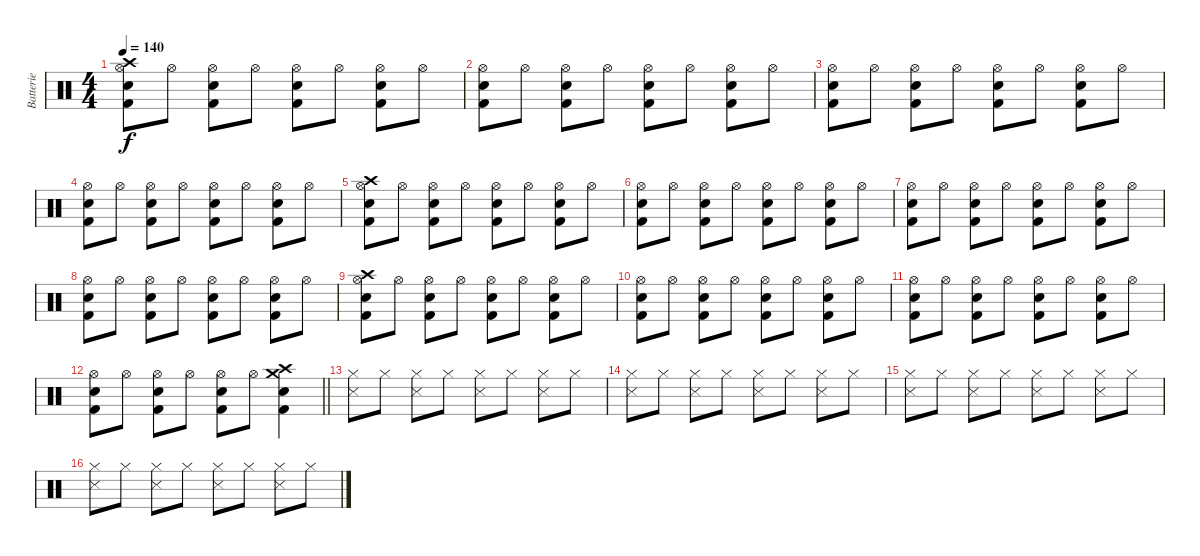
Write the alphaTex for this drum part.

\track ("Batterie" "Batterie") {instrument percussion}
\staff {score}
\articulation defaults
\ts (4 4)
\tempo 140
\clef neutral
\ks c
("Crash high (hit)" "Hi-Hat (open)" "Electric Snare (hit)" "Kick (hit) 2").8{dy f} "Hi-Hat (open)".8 ("Hi-Hat (open)" "Electric Snare (hit)" "Kick (hit) 2").8 "Hi-Hat (open)".8 ("Hi-Hat (open)" "Electric Snare (hit)" "Kick (hit) 2").8 "Hi-Hat (open)".8 ("Hi-Hat (open)" "Electric Snare (hit)" "Kick (hit) 2").8 "Hi-Hat (open)".8 |
("Hi-Hat (open)" "Electric Snare (hit)" "Kick (hit) 2").8 "Hi-Hat (open)".8 ("Hi-Hat (open)" "Electric Snare (hit)" "Kick (hit) 2").8 "Hi-Hat (open)".8 ("Hi-Hat (open)" "Electric Snare (hit)" "Kick (hit) 2").8 "Hi-Hat (open)".8 ("Hi-Hat (open)" "Electric Snare (hit)" "Kick (hit) 2").8 "Hi-Hat (open)".8 |
("Hi-Hat (open)" "Electric Snare (hit)" "Kick (hit) 2").8 "Hi-Hat (open)".8 ("Hi-Hat (open)" "Electric Snare (hit)" "Kick (hit) 2").8 "Hi-Hat (open)".8 ("Hi-Hat (open)" "Electric Snare (hit)" "Kick (hit) 2").8 "Hi-Hat (open)".8 ("Hi-Hat (open)" "Electric Snare (hit)" "Kick (hit) 2").8 "Hi-Hat (open)".8 |
("Hi-Hat (open)" "Electric Snare (hit)" "Kick (hit) 2").8 "Hi-Hat (open)".8 ("Hi-Hat (open)" "Electric Snare (hit)" "Kick (hit) 2").8 "Hi-Hat (open)".8 ("Hi-Hat (open)" "Electric Snare (hit)" "Kick (hit) 2").8 "Hi-Hat (open)".8 ("Hi-Hat (open)" "Electric Snare (hit)" "Kick (hit) 2").8 "Hi-Hat (open)".8 |
("Crash high (hit)" "Hi-Hat (open)" "Electric Snare (hit)" "Kick (hit) 2").8 "Hi-Hat (open)".8 ("Hi-Hat (open)" "Electric Snare (hit)" "Kick (hit) 2").8 "Hi-Hat (open)".8 ("Hi-Hat (open)" "Electric Snare (hit)" "Kick (hit) 2").8 "Hi-Hat (open)".8 ("Hi-Hat (open)" "Electric Snare (hit)" "Kick (hit) 2").8 "Hi-Hat (open)".8 |
("Hi-Hat (open)" "Electric Snare (hit)" "Kick (hit) 2").8 "Hi-Hat (open)".8 ("Hi-Hat (open)" "Electric Snare (hit)" "Kick (hit) 2").8 "Hi-Hat (open)".8 ("Hi-Hat (open)" "Electric Snare (hit)" "Kick (hit) 2").8 "Hi-Hat (open)".8 ("Hi-Hat (open)" "Electric Snare (hit)" "Kick (hit) 2").8 "Hi-Hat (open)".8 |
("Hi-Hat (open)" "Electric Snare (hit)" "Kick (hit) 2").8 "Hi-Hat (open)".8 ("Hi-Hat (open)" "Electric Snare (hit)" "Kick (hit) 2").8 "Hi-Hat (open)".8 ("Hi-Hat (open)" "Electric Snare (hit)" "Kick (hit) 2").8 "Hi-Hat (open)".8 ("Hi-Hat (open)" "Electric Snare (hit)" "Kick (hit) 2").8 "Hi-Hat (open)".8 |
("Hi-Hat (open)" "Electric Snare (hit)" "Kick (hit) 2").8 "Hi-Hat (open)".8 ("Hi-Hat (open)" "Electric Snare (hit)" "Kick (hit) 2").8 "Hi-Hat (open)".8 ("Hi-Hat (open)" "Electric Snare (hit)" "Kick (hit) 2").8 "Hi-Hat (open)".8 ("Hi-Hat (open)" "Electric Snare (hit)" "Kick (hit) 2").8 "Hi-Hat (open)".8 |
("Crash high (hit)" "Hi-Hat (open)" "Electric Snare (hit)" "Kick (hit) 2").8 "Hi-Hat (open)".8 ("Hi-Hat (open)" "Electric Snare (hit)" "Kick (hit) 2").8 "Hi-Hat (open)".8 ("Hi-Hat (open)" "Electric Snare (hit)" "Kick (hit) 2").8 "Hi-Hat (open)".8 ("Hi-Hat (open)" "Electric Snare (hit)" "Kick (hit) 2").8 "Hi-Hat (open)".8 |
("Hi-Hat (open)" "Electric Snare (hit)" "Kick (hit) 2").8 "Hi-Hat (open)".8 ("Hi-Hat (open)" "Electric Snare (hit)" "Kick (hit) 2").8 "Hi-Hat (open)".8 ("Hi-Hat (open)" "Electric Snare (hit)" "Kick (hit) 2").8 "Hi-Hat (open)".8 ("Hi-Hat (open)" "Electric Snare (hit)" "Kick (hit) 2").8 "Hi-Hat (open)".8 |
("Hi-Hat (open)" "Electric Snare (hit)" "Kick (hit) 2").8 "Hi-Hat (open)".8 ("Hi-Hat (open)" "Electric Snare (hit)" "Kick (hit) 2").8 "Hi-Hat (open)".8 ("Hi-Hat (open)" "Electric Snare (hit)" "Kick (hit) 2").8 "Hi-Hat (open)".8 ("Hi-Hat (open)" "Electric Snare (hit)" "Kick (hit) 2").8 "Hi-Hat (open)".8 |
\barLineRight lightlight
("Hi-Hat (open)" "Electric Snare (hit)" "Kick (hit) 2").8 "Hi-Hat (open)".8 ("Hi-Hat (open)" "Electric Snare (hit)" "Kick (hit) 2").8 "Hi-Hat (open)".8 ("Hi-Hat (open)" "Electric Snare (hit)" "Kick (hit) 2").8 "Hi-Hat (open)".8 ("Crash medium (hit)" "Crash high (hit)" "Electric Snare (hit)" "Kick (hit) 2").4 |
("Hi-Hat (closed)" "Metronome (hit)").8 "Hi-Hat (closed)".8 ("Hi-Hat (closed)" "Metronome (hit)").8 "Hi-Hat (closed)".8 ("Hi-Hat (closed)" "Metronome (hit)").8 "Hi-Hat (closed)".8 ("Hi-Hat (closed)" "Metronome (hit)").8 "Hi-Hat (closed)".8 |
("Hi-Hat (closed)" "Metronome (hit)").8 "Hi-Hat (closed)".8 ("Hi-Hat (closed)" "Metronome (hit)").8 "Hi-Hat (closed)".8 ("Hi-Hat (closed)" "Metronome (hit)").8 "Hi-Hat (closed)".8 ("Hi-Hat (closed)" "Metronome (hit)").8 "Hi-Hat (closed)".8 |
("Hi-Hat (closed)" "Metronome (hit)").8 "Hi-Hat (closed)".8 ("Hi-Hat (closed)" "Metronome (hit)").8 "Hi-Hat (closed)".8 ("Hi-Hat (closed)" "Metronome (hit)").8 "Hi-Hat (closed)".8 ("Hi-Hat (closed)" "Metronome (hit)").8 "Hi-Hat (closed)".8 |
("Hi-Hat (closed)" "Metronome (hit)").8 "Hi-Hat (closed)".8 ("Hi-Hat (closed)" "Metronome (hit)").8 "Hi-Hat (closed)".8 ("Hi-Hat (closed)" "Metronome (hit)").8 "Hi-Hat (closed)".8 ("Hi-Hat (closed)" "Metronome (hit)").8 "Hi-Hat (closed)".8
